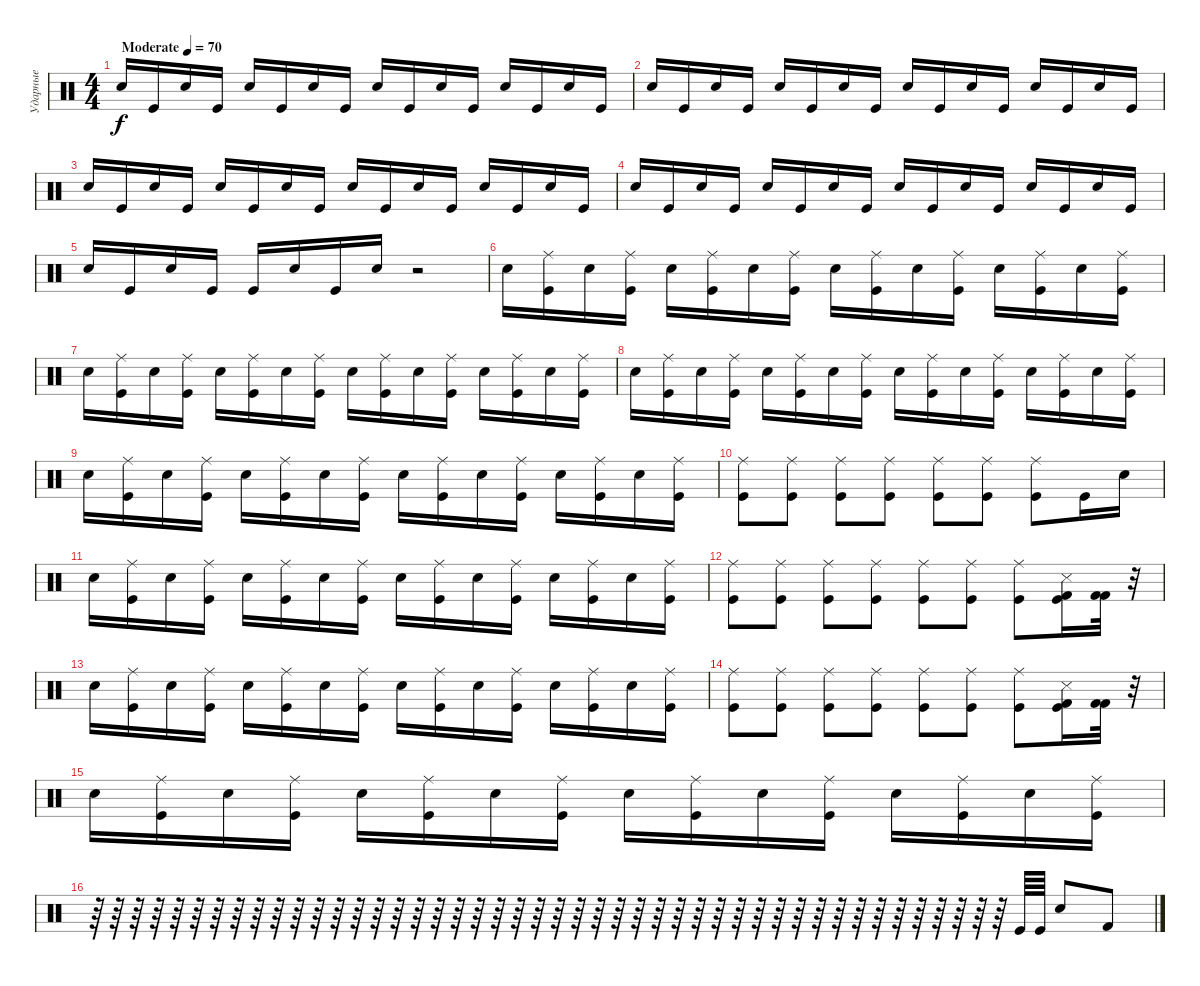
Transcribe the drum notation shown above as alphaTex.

\track ("Ударные" "Ударные") {instrument percussion}
\staff {score}
\articulation defaults
\ts (4 4)
\tempo (70 "Moderate")
\clef neutral
\ks c "Snare (hit) 2".16{dy f} "Kick (hit)".16 "Snare (hit) 2".16 "Kick (hit)".16 "Snare (hit) 2".16 "Kick (hit)".16 "Snare (hit) 2".16 "Kick (hit)".16 "Snare (hit) 2".16 "Kick (hit)".16 "Snare (hit) 2".16 "Kick (hit)".16 "Snare (hit) 2".16 "Kick (hit)".16 "Snare (hit) 2".16 "Kick (hit)".16
|
"Snare (hit) 2".16 "Kick (hit)".16 "Snare (hit) 2".16 "Kick (hit)".16 "Snare (hit) 2".16 "Kick (hit)".16 "Snare (hit) 2".16 "Kick (hit)".16 "Snare (hit) 2".16 "Kick (hit)".16 "Snare (hit) 2".16 "Kick (hit)".16 "Snare (hit) 2".16 "Kick (hit)".16 "Snare (hit) 2".16 "Kick (hit)".16 |
"Snare (hit) 2".16 "Kick (hit)".16 "Snare (hit) 2".16 "Kick (hit)".16 "Snare (hit) 2".16 "Kick (hit)".16 "Snare (hit) 2".16 "Kick (hit)".16 "Snare (hit) 2".16 "Kick (hit)".16 "Snare (hit) 2".16 "Kick (hit)".16 "Snare (hit) 2".16 "Kick (hit)".16 "Snare (hit) 2".16 "Kick (hit)".16 |
"Snare (hit) 2".16 "Kick (hit)".16 "Snare (hit) 2".16 "Kick (hit)".16 "Snare (hit) 2".16 "Kick (hit)".16 "Snare (hit) 2".16 "Kick (hit)".16 "Snare (hit) 2".16 "Kick (hit)".16 "Snare (hit) 2".16 "Kick (hit)".16 "Snare (hit) 2".16 "Kick (hit)".16 "Snare (hit) 2".16 "Kick (hit)".16 |
"Snare (hit) 2".16 "Kick (hit)".16 "Snare (hit) 2".16 "Kick (hit)".16 "Kick (hit)".16 "Snare (hit) 2".16 "Kick (hit)".16 "Snare (hit) 2".16 r.2 |
"Snare (hit) 2".16 ("Kick (hit)" "Ride (middle)").16 "Snare (hit) 2".16 ("Kick (hit)" "Ride (middle)").16 "Snare (hit) 2".16 ("Kick (hit)" "Ride (middle)").16 "Snare (hit) 2".16 ("Kick (hit)" "Ride (middle)").16 "Snare (hit) 2".16 ("Kick (hit)" "Ride (middle)").16 "Snare (hit) 2".16 ("Kick (hit)" "Ride (middle)").16 "Snare (hit) 2".16 ("Kick (hit)" "Ride (middle)").16 "Snare (hit) 2".16 ("Kick (hit)" "Ride (middle)").16 |
"Snare (hit) 2".16 ("Kick (hit)" "Ride (middle)").16 "Snare (hit) 2".16 ("Kick (hit)" "Ride (middle)").16 "Snare (hit) 2".16 ("Kick (hit)" "Ride (middle)").16 "Snare (hit) 2".16 ("Kick (hit)" "Ride (middle)").16 "Snare (hit) 2".16 ("Kick (hit)" "Ride (middle)").16 "Snare (hit) 2".16 ("Kick (hit)" "Ride (middle)").16 "Snare (hit) 2".16 ("Kick (hit)" "Ride (middle)").16 "Snare (hit) 2".16 ("Kick (hit)" "Ride (middle)").16 |
"Snare (hit) 2".16 ("Kick (hit)" "Ride (middle)").16 "Snare (hit) 2".16 ("Kick (hit)" "Ride (middle)").16 "Snare (hit) 2".16 ("Kick (hit)" "Ride (middle)").16 "Snare (hit) 2".16 ("Kick (hit)" "Ride (middle)").16 "Snare (hit) 2".16 ("Kick (hit)" "Ride (middle)").16 "Snare (hit) 2".16 ("Kick (hit)" "Ride (middle)").16 "Snare (hit) 2".16 ("Kick (hit)" "Ride (middle)").16 "Snare (hit) 2".16 ("Kick (hit)" "Ride (middle)").16 |
"Snare (hit) 2".16 ("Kick (hit)" "Ride (middle)").16 "Snare (hit) 2".16 ("Kick (hit)" "Ride (middle)").16 "Snare (hit) 2".16 ("Kick (hit)" "Ride (middle)").16 "Snare (hit) 2".16 ("Kick (hit)" "Ride (middle)").16 "Snare (hit) 2".16 ("Kick (hit)" "Ride (middle)").16 "Snare (hit) 2".16 ("Kick (hit)" "Ride (middle)").16 "Snare (hit) 2".16 ("Kick (hit)" "Ride (middle)").16 "Snare (hit) 2".16 ("Kick (hit)" "Ride (middle)").16 |
("Kick (hit)" "Ride (middle)").8 ("Kick (hit)" "Ride (middle)").8 ("Kick (hit)" "Ride (middle)").8 ("Kick (hit)" "Ride (middle)").8 ("Kick (hit)" "Ride (middle)").8 ("Kick (hit)" "Ride (middle)").8 ("Kick (hit)" "Ride (middle)").8 "Kick (hit)".16 "Snare (hit) 2".16 |
"Snare (hit) 2".16 ("Kick (hit)" "Ride (middle)").16 "Snare (hit) 2".16 ("Kick (hit)" "Ride (middle)").16 "Snare (hit) 2".16 ("Kick (hit)" "Ride (middle)").16 "Snare (hit) 2".16 ("Kick (hit)" "Ride (middle)").16 "Snare (hit) 2".16 ("Kick (hit)" "Ride (middle)").16 "Snare (hit) 2".16 ("Kick (hit)" "Ride (middle)").16 "Snare (hit) 2".16 ("Kick (hit)" "Ride (middle)").16 "Snare (hit) 2".16 ("Kick (hit)" "Ride (middle)").16 |
("Kick (hit)" "Ride (middle)").8 ("Kick (hit)" "Ride (middle)").8 ("Kick (hit)" "Ride (middle)").8 ("Kick (hit)" "Ride (middle)").8 ("Kick (hit)" "Ride (middle)").8 ("Kick (hit)" "Ride (middle)").8 ("Kick (hit)" "Ride (middle)").8 ("Kick (hit) 2" "Snare (side stick) 3" "Kick (hit)").16 ("Kick (hit) 2" "Kick (hit) 2").32 r.32 |
"Snare (hit) 2".16 ("Kick (hit)" "Ride (middle)").16 "Snare (hit) 2".16 ("Kick (hit)" "Ride (middle)").16 "Snare (hit) 2".16 ("Kick (hit)" "Ride (middle)").16 "Snare (hit) 2".16 ("Kick (hit)" "Ride (middle)").16 "Snare (hit) 2".16 ("Kick (hit)" "Ride (middle)").16 "Snare (hit) 2".16 ("Kick (hit)" "Ride (middle)").16 "Snare (hit) 2".16 ("Kick (hit)" "Ride (middle)").16 "Snare (hit) 2".16 ("Kick (hit)" "Ride (middle)").16 |
("Kick (hit)" "Ride (middle)").8 ("Kick (hit)" "Ride (middle)").8 ("Kick (hit)" "Ride (middle)").8 ("Kick (hit)" "Ride (middle)").8 ("Kick (hit)" "Ride (middle)").8 ("Kick (hit)" "Ride (middle)").8 ("Kick (hit)" "Ride (middle)").8 ("Kick (hit) 2" "Snare (side stick) 3" "Kick (hit)").16 ("Kick (hit) 2" "Kick (hit) 2").32 r.32 |
"Snare (hit) 2".16 ("Kick (hit)" "Ride (middle)").16 "Snare (hit) 2".16 ("Kick (hit)" "Ride (middle)").16 "Snare (hit) 2".16 ("Kick (hit)" "Ride (middle)").16 "Snare (hit) 2".16 ("Kick (hit)" "Ride (middle)").16 "Snare (hit) 2".16 ("Kick (hit)" "Ride (middle)").16 "Snare (hit) 2".16 ("Kick (hit)" "Ride (middle)").16 "Snare (hit) 2".16 ("Kick (hit)" "Ride (middle)").16 "Snare (hit) 2".16 ("Kick (hit)" "Ride (middle)").16 |
r.64 r.64 r.64 r.64 r.64 r.64 r.64 r.64 r.64 r.64 r.64 r.64 r.64 r.64 r.64 r.64 r.64 r.64 r.64 r.64 r.64 r.64 r.64 r.64 r.64 r.64 r.64 r.64 r.64 r.64 r.64 r.64 r.64 r.64 r.64 r.64 r.64 r.64 r.64 r.64 r.64 r.64 r.64 r.64 r.64 r.64 "Kick (hit)".64 "Kick (hit)".64 "Snare (hit) 2".8 "Kick (hit) 2".8
